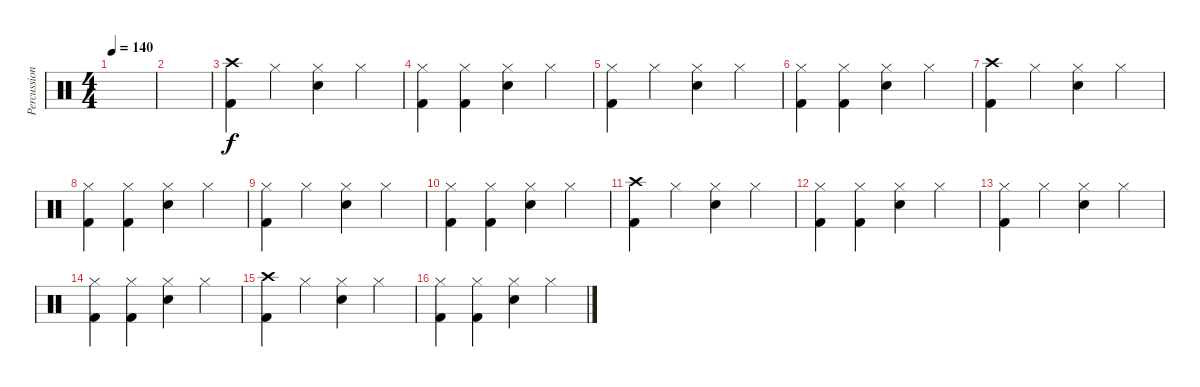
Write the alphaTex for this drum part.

\track ("Percussion" "Percussion") {instrument percussion}
\staff {score}
\articulation defaults
\ts (4 4)
\tempo 140
\clef neutral
\ks c
|
|
("Crash high (hit)" "Kick (hit) 2").4 "Hi-Hat (closed)".4 ("Hi-Hat (closed)" "Electric Snare (hit)").4 "Hi-Hat (closed)".4 |
("Hi-Hat (closed)" "Kick (hit) 2").4 ("Hi-Hat (closed)" "Kick (hit) 2").4 ("Hi-Hat (closed)" "Electric Snare (hit)").4 "Hi-Hat (closed)".4 |
("Hi-Hat (closed)" "Kick (hit) 2").4 "Hi-Hat (closed)".4 ("Hi-Hat (closed)" "Electric Snare (hit)").4 "Hi-Hat (closed)".4 |
("Hi-Hat (closed)" "Kick (hit) 2").4 ("Hi-Hat (closed)" "Kick (hit) 2").4 ("Hi-Hat (closed)" "Electric Snare (hit)").4 "Hi-Hat (closed)".4 |
("Crash high (hit)" "Kick (hit) 2").4 "Hi-Hat (closed)".4 ("Hi-Hat (closed)" "Electric Snare (hit)").4 "Hi-Hat (closed)".4 |
("Hi-Hat (closed)" "Kick (hit) 2").4 ("Hi-Hat (closed)" "Kick (hit) 2").4 ("Hi-Hat (closed)" "Electric Snare (hit)").4 "Hi-Hat (closed)".4 |
("Hi-Hat (closed)" "Kick (hit) 2").4 "Hi-Hat (closed)".4 ("Hi-Hat (closed)" "Electric Snare (hit)").4 "Hi-Hat (closed)".4 |
("Hi-Hat (closed)" "Kick (hit) 2").4 ("Hi-Hat (closed)" "Kick (hit) 2").4 ("Hi-Hat (closed)" "Electric Snare (hit)").4 "Hi-Hat (closed)".4 |
("Crash high (hit)" "Kick (hit) 2").4 "Hi-Hat (closed)".4 ("Hi-Hat (closed)" "Electric Snare (hit)").4 "Hi-Hat (closed)".4 |
("Hi-Hat (closed)" "Kick (hit) 2").4 ("Hi-Hat (closed)" "Kick (hit) 2").4 ("Hi-Hat (closed)" "Electric Snare (hit)").4 "Hi-Hat (closed)".4 |
("Hi-Hat (closed)" "Kick (hit) 2").4 "Hi-Hat (closed)".4 ("Hi-Hat (closed)" "Electric Snare (hit)").4 "Hi-Hat (closed)".4 |
("Hi-Hat (closed)" "Kick (hit) 2").4 ("Hi-Hat (closed)" "Kick (hit) 2").4 ("Hi-Hat (closed)" "Electric Snare (hit)").4 "Hi-Hat (closed)".4 |
("Crash high (hit)" "Kick (hit) 2").4 "Hi-Hat (closed)".4 ("Hi-Hat (closed)" "Electric Snare (hit)").4 "Hi-Hat (closed)".4 |
("Hi-Hat (closed)" "Kick (hit) 2").4 ("Hi-Hat (closed)" "Kick (hit) 2").4 ("Hi-Hat (closed)" "Electric Snare (hit)").4 "Hi-Hat (closed)".4
